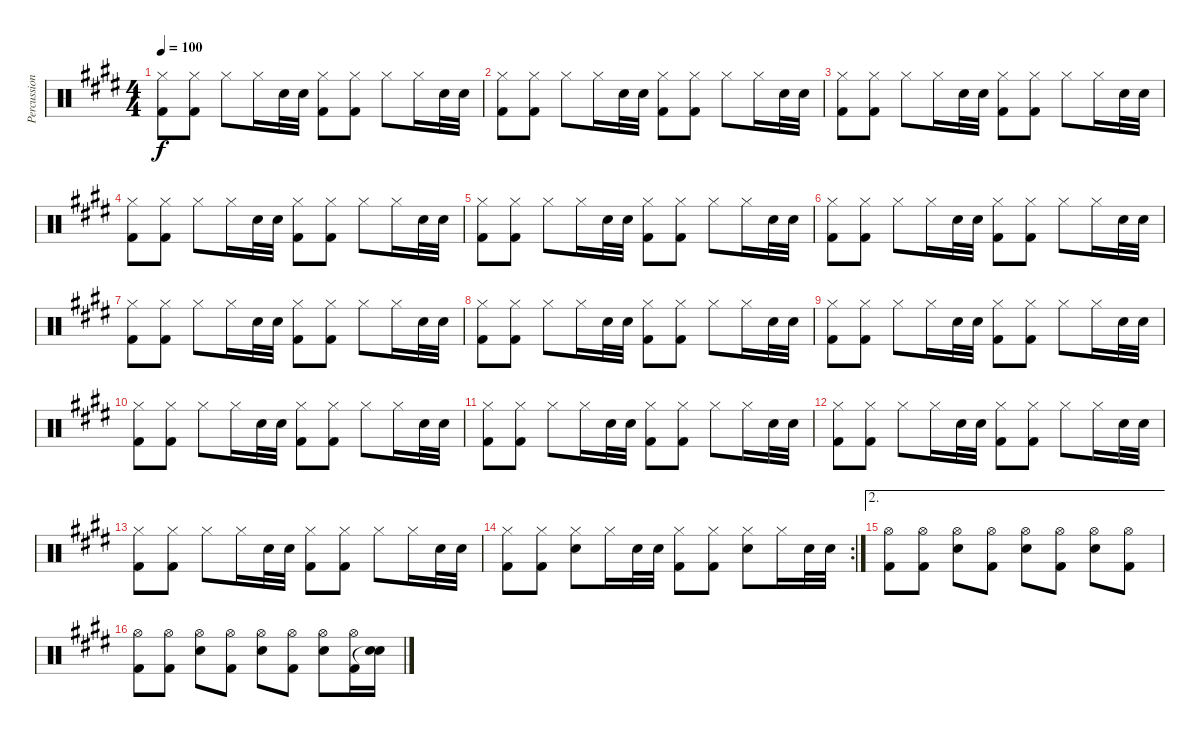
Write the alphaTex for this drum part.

\track ("Percussion" "Percussion") {instrument percussion}
\staff {score}
\articulation defaults
\ts (4 4)
\tempo 100
\clef neutral
\ks e
("Hi-Hat (closed)" "Kick (hit) 2").8{dy f} ("Hi-Hat (closed)" "Kick (hit) 2").8 "Hi-Hat (closed)".8 "Hi-Hat (closed)".16 "Snare (hit) 2".32 "Snare (hit) 2".32 ("Hi-Hat (closed)" "Kick (hit) 2").8 ("Hi-Hat (closed)" "Kick (hit) 2").8 "Hi-Hat (closed)".8 "Hi-Hat (closed)".16 "Snare (hit) 2".32 "Snare (hit) 2".32 |
("Hi-Hat (closed)" "Kick (hit) 2").8 ("Hi-Hat (closed)" "Kick (hit) 2").8 "Hi-Hat (closed)".8 "Hi-Hat (closed)".16 "Snare (hit) 2".32 "Snare (hit) 2".32 ("Hi-Hat (closed)" "Kick (hit) 2").8 ("Hi-Hat (closed)" "Kick (hit) 2").8 "Hi-Hat (closed)".8 "Hi-Hat (closed)".16 "Snare (hit) 2".32 "Snare (hit) 2".32 |
("Hi-Hat (closed)" "Kick (hit) 2").8 ("Hi-Hat (closed)" "Kick (hit) 2").8 "Hi-Hat (closed)".8 "Hi-Hat (closed)".16 "Snare (hit) 2".32 "Snare (hit) 2".32 ("Hi-Hat (closed)" "Kick (hit) 2").8 ("Hi-Hat (closed)" "Kick (hit) 2").8 "Hi-Hat (closed)".8 "Hi-Hat (closed)".16 "Snare (hit) 2".32 "Snare (hit) 2".32 |
("Hi-Hat (closed)" "Kick (hit) 2").8 ("Hi-Hat (closed)" "Kick (hit) 2").8 "Hi-Hat (closed)".8 "Hi-Hat (closed)".16 "Snare (hit) 2".32 "Snare (hit) 2".32 ("Hi-Hat (closed)" "Kick (hit) 2").8 ("Hi-Hat (closed)" "Kick (hit) 2").8 "Hi-Hat (closed)".8 "Hi-Hat (closed)".16 "Snare (hit) 2".32 "Snare (hit) 2".32 |
("Hi-Hat (closed)" "Kick (hit) 2").8 ("Hi-Hat (closed)" "Kick (hit) 2").8 "Hi-Hat (closed)".8 "Hi-Hat (closed)".16 "Snare (hit) 2".32 "Snare (hit) 2".32 ("Hi-Hat (closed)" "Kick (hit) 2").8 ("Hi-Hat (closed)" "Kick (hit) 2").8 "Hi-Hat (closed)".8 "Hi-Hat (closed)".16 "Snare (hit) 2".32 "Snare (hit) 2".32 |
("Hi-Hat (closed)" "Kick (hit) 2").8 ("Hi-Hat (closed)" "Kick (hit) 2").8 "Hi-Hat (closed)".8 "Hi-Hat (closed)".16 "Snare (hit) 2".32 "Snare (hit) 2".32 ("Hi-Hat (closed)" "Kick (hit) 2").8 ("Hi-Hat (closed)" "Kick (hit) 2").8 "Hi-Hat (closed)".8 "Hi-Hat (closed)".16 "Snare (hit) 2".32 "Snare (hit) 2".32 |
("Hi-Hat (closed)" "Kick (hit) 2").8 ("Hi-Hat (closed)" "Kick (hit) 2").8 "Hi-Hat (closed)".8 "Hi-Hat (closed)".16 "Snare (hit) 2".32 "Snare (hit) 2".32 ("Hi-Hat (closed)" "Kick (hit) 2").8 ("Hi-Hat (closed)" "Kick (hit) 2").8 "Hi-Hat (closed)".8 "Hi-Hat (closed)".16 "Snare (hit) 2".32 "Snare (hit) 2".32 |
("Hi-Hat (closed)" "Kick (hit) 2").8 ("Hi-Hat (closed)" "Kick (hit) 2").8 "Hi-Hat (closed)".8 "Hi-Hat (closed)".16 "Snare (hit) 2".32 "Snare (hit) 2".32 ("Hi-Hat (closed)" "Kick (hit) 2").8 ("Hi-Hat (closed)" "Kick (hit) 2").8 "Hi-Hat (closed)".8 "Hi-Hat (closed)".16 "Snare (hit) 2".32 "Snare (hit) 2".32 |
("Hi-Hat (closed)" "Kick (hit) 2").8 ("Hi-Hat (closed)" "Kick (hit) 2").8 "Hi-Hat (closed)".8 "Hi-Hat (closed)".16 "Snare (hit) 2".32 "Snare (hit) 2".32 ("Hi-Hat (closed)" "Kick (hit) 2").8 ("Hi-Hat (closed)" "Kick (hit) 2").8 "Hi-Hat (closed)".8 "Hi-Hat (closed)".16 "Snare (hit) 2".32 "Snare (hit) 2".32 |
("Hi-Hat (closed)" "Kick (hit) 2").8 ("Hi-Hat (closed)" "Kick (hit) 2").8 "Hi-Hat (closed)".8 "Hi-Hat (closed)".16 "Snare (hit) 2".32 "Snare (hit) 2".32 ("Hi-Hat (closed)" "Kick (hit) 2").8 ("Hi-Hat (closed)" "Kick (hit) 2").8 "Hi-Hat (closed)".8 "Hi-Hat (closed)".16 "Snare (hit) 2".32 "Snare (hit) 2".32 |
("Hi-Hat (closed)" "Kick (hit) 2").8 ("Hi-Hat (closed)" "Kick (hit) 2").8 "Hi-Hat (closed)".8 "Hi-Hat (closed)".16 "Snare (hit) 2".32 "Snare (hit) 2".32 ("Hi-Hat (closed)" "Kick (hit) 2").8 ("Hi-Hat (closed)" "Kick (hit) 2").8 "Hi-Hat (closed)".8 "Hi-Hat (closed)".16 "Snare (hit) 2".32 "Snare (hit) 2".32 |
("Hi-Hat (closed)" "Kick (hit) 2").8 ("Hi-Hat (closed)" "Kick (hit) 2").8 "Hi-Hat (closed)".8 "Hi-Hat (closed)".16 "Snare (hit) 2".32 "Snare (hit) 2".32 ("Hi-Hat (closed)" "Kick (hit) 2").8 ("Hi-Hat (closed)" "Kick (hit) 2").8 "Hi-Hat (closed)".8 "Hi-Hat (closed)".16 "Snare (hit) 2".32 "Snare (hit) 2".32 |
("Hi-Hat (closed)" "Kick (hit) 2").8 ("Hi-Hat (closed)" "Kick (hit) 2").8 "Hi-Hat (closed)".8 "Hi-Hat (closed)".16 "Snare (hit) 2".32 "Snare (hit) 2".32 ("Hi-Hat (closed)" "Kick (hit) 2").8 ("Hi-Hat (closed)" "Kick (hit) 2").8 "Hi-Hat (closed)".8 "Hi-Hat (closed)".16 "Snare (hit) 2".32 "Snare (hit) 2".32 |
\rc 2
("Hi-Hat (closed)" "Kick (hit) 2").8 ("Hi-Hat (closed)" "Kick (hit) 2").8 ("Hi-Hat (closed)" "Snare (hit) 2").8 "Hi-Hat (closed)".16 "Snare (hit) 2".32 "Snare (hit) 2".32 ("Hi-Hat (closed)" "Kick (hit) 2").8 ("Hi-Hat (closed)" "Kick (hit) 2").8 ("Hi-Hat (closed)" "Snare (hit) 2").8 "Hi-Hat (closed)".16 "Snare (hit) 2".32 "Snare (hit) 2".32 |
\ae 2
("Hi-Hat (open)" "Kick (hit) 2").8 ("Hi-Hat (open)" "Kick (hit) 2").8 ("Hi-Hat (open)" "Snare (hit) 2").8 ("Hi-Hat (open)" "Kick (hit) 2").8 ("Hi-Hat (open)" "Snare (hit) 2").8 ("Hi-Hat (open)" "Kick (hit) 2").8 ("Hi-Hat (open)" "Snare (hit) 2").8 ("Hi-Hat (open)" "Kick (hit) 2").8 |
("Hi-Hat (open)" "Kick (hit) 2").8 ("Hi-Hat (open)" "Kick (hit) 2").8 ("Hi-Hat (open)" "Snare (hit) 2").8 ("Hi-Hat (open)" "Kick (hit) 2").8 ("Hi-Hat (open)" "Snare (hit) 2").8 ("Hi-Hat (open)" "Kick (hit) 2").8 ("Hi-Hat (open)" "Snare (hit) 2").8 ("Hi-Hat (open)" "Kick (hit) 2").16 ("Snare (hit) 2" "Snare (hit)"{t}).16
